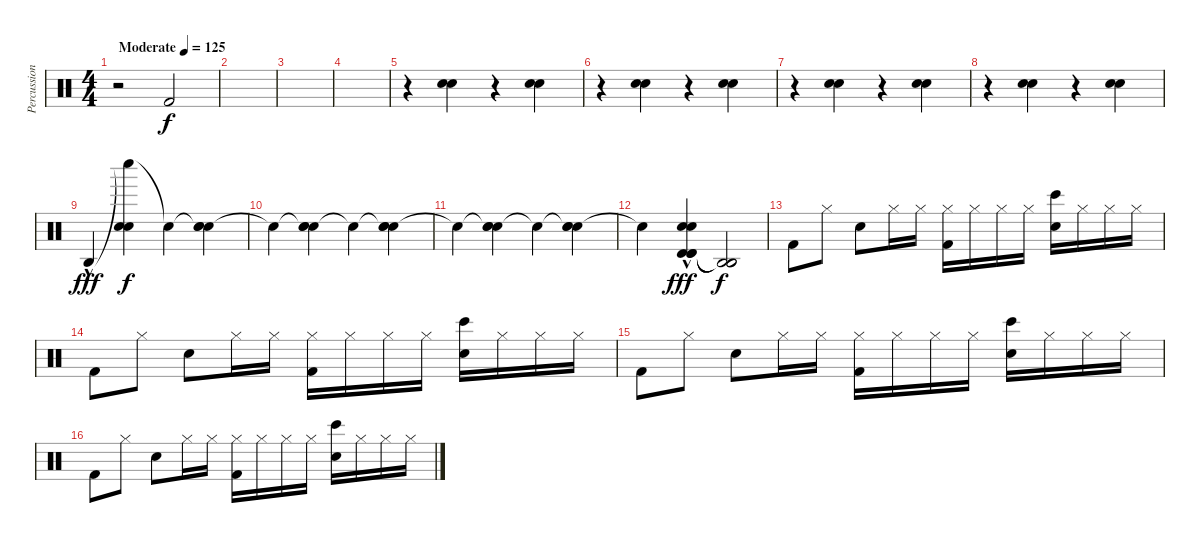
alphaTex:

\track ("Percussion" "Percussion") {instrument percussion}
\staff {score}
\articulation defaults
\ts (4 4)
\tempo (125 "Moderate")
\clef neutral
\ks c
r.2{dy f} "Kick (hit) 2".2 |
|
|
|
r.4 ("Snare (hit) 2" "Snare (hit) 2").4 r.4 ("Snare (hit) 2" "Snare (hit) 2").4 |
r.4 ("Snare (hit) 2" "Snare (hit) 2").4 r.4 ("Snare (hit) 2" "Snare (hit) 2").4 |
r.4 ("Snare (hit) 2" "Snare (hit) 2").4 r.4 ("Snare (hit) 2" "Snare (hit) 2").4 |
r.4 ("Snare (hit) 2" "Snare (hit) 2").4 r.4 ("Snare (hit) 2" "Snare (hit) 2").4 |
"Agogo high (hit)"{hac}.4{dy fff} ("Whistle low (hit)"{t} "Snare (hit) 2" "Snare (hit) 2").4{dy f} "Snare (hit)"{t}.4 ("Snare (hit)"{t} "Snare (hit) 2" "Snare (hit) 2").4 |
"Snare (hit)"{t}.4 ("Snare (hit)"{t} "Snare (hit) 2" "Snare (hit) 2").4 "Snare (hit)"{t}.4 ("Snare (hit)"{t} "Snare (hit) 2" "Snare (hit) 2").4 |
"Snare (hit)"{t}.4 ("Snare (hit)"{t} "Snare (hit) 2" "Snare (hit) 2").4 "Snare (hit)"{t}.4 ("Snare (hit)"{t} "Snare (hit) 2" "Snare (hit) 2").4 |
"Snare (hit)"{t}.4 ("Timbale high (hit)"{hac} "Timbale high (hit)"{hac} "Timbale high (hit)"{hac} "Snare (hit) 2" "Snare (hit) 2").4{dy fff} ("Agogo high (hit)"{t} "Agogo high (hit)"{t} "Agogo high (hit)"{t}).2{dy f} |
"Kick (hit) 2".8 "Hi-Hat (closed)".8 "Snare (hit) 2".8 "Hi-Hat (closed)".16 "Hi-Hat (closed)".16 ("Hi-Hat (closed)" "Kick (hit) 2").16 "Hi-Hat (closed)".16 "Hi-Hat (closed)".16 "Hi-Hat (closed)".16 ("Bongo High (hit)" "Snare (hit) 2").16 "Hi-Hat (closed)".16 "Hi-Hat (closed)".16 "Hi-Hat (closed)".16 |
"Kick (hit) 2".8 "Hi-Hat (closed)".8 "Snare (hit) 2".8 "Hi-Hat (closed)".16 "Hi-Hat (closed)".16 ("Hi-Hat (closed)" "Kick (hit) 2").16 "Hi-Hat (closed)".16 "Hi-Hat (closed)".16 "Hi-Hat (closed)".16 ("Bongo High (hit)" "Snare (hit) 2").16 "Hi-Hat (closed)".16 "Hi-Hat (closed)".16 "Hi-Hat (closed)".16 |
"Kick (hit) 2".8 "Hi-Hat (closed)".8 "Snare (hit) 2".8 "Hi-Hat (closed)".16 "Hi-Hat (closed)".16 ("Hi-Hat (closed)" "Kick (hit) 2").16 "Hi-Hat (closed)".16 "Hi-Hat (closed)".16 "Hi-Hat (closed)".16 ("Bongo High (hit)" "Snare (hit) 2").16 "Hi-Hat (closed)".16 "Hi-Hat (closed)".16 "Hi-Hat (closed)".16 |
"Kick (hit) 2".8 "Hi-Hat (closed)".8 "Snare (hit) 2".8 "Hi-Hat (closed)".16 "Hi-Hat (closed)".16 ("Hi-Hat (closed)" "Kick (hit) 2").16 "Hi-Hat (closed)".16 "Hi-Hat (closed)".16 "Hi-Hat (closed)".16 ("Bongo High (hit)" "Snare (hit) 2").16 "Hi-Hat (closed)".16 "Hi-Hat (closed)".16 "Hi-Hat (closed)".16
